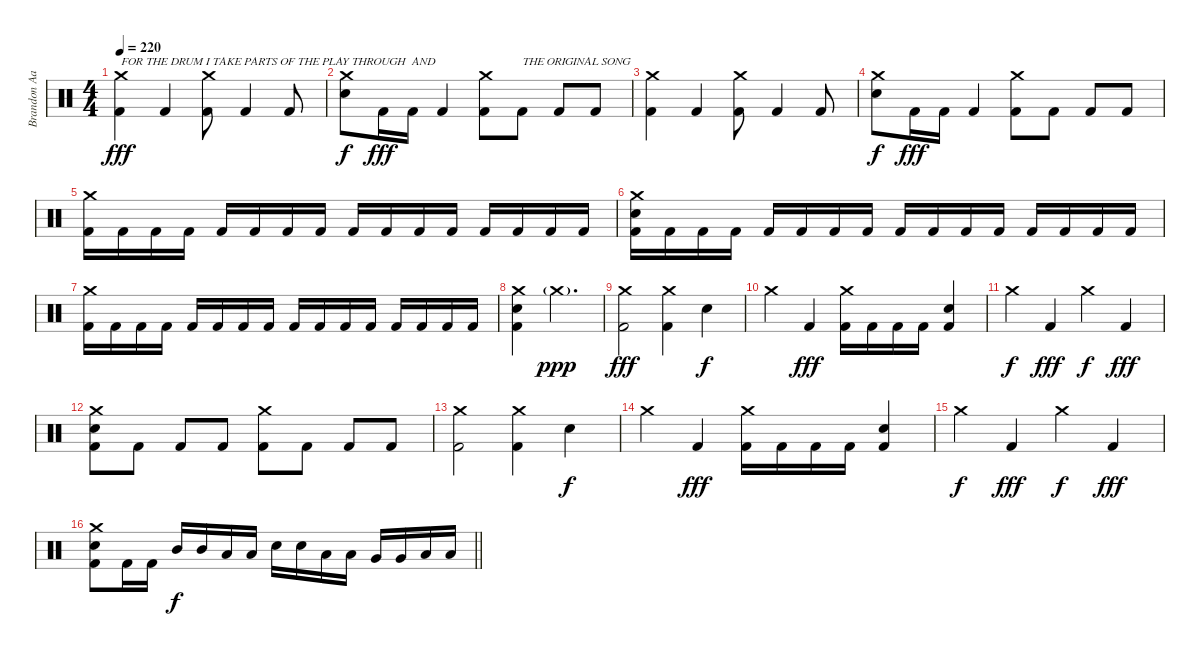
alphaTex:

\track ("Brandon Aaron Burkhalter" "Brandon Aa") {instrument percussion}
\staff {score}
\articulation defaults
\ts (4 4)
\tempo 220
\clef neutral
\ks c
("Crash medium (hit)" "Kick (hit) 2").4{txt "FOR THE DRUM I TAKE PARTS OF THE PLAY THROUGH  AND" dy fff} "Kick (hit) 2".4 ("Crash medium (hit)" "Kick (hit) 2").8 "Kick (hit) 2".4 "Kick (hit) 2".8 |
("Crash medium (hit)" "Snare (hit) 2").8{dy f} "Kick (hit) 2".16{dy fff} "Kick (hit) 2".16 "Kick (hit) 2".4 ("Crash medium (hit)" "Kick (hit) 2").8 "Kick (hit) 2".8{txt "THE ORIGINAL SONG"} "Kick (hit) 2".8 "Kick (hit) 2".8 |
("Crash medium (hit)" "Kick (hit) 2").4 "Kick (hit) 2".4 ("Crash medium (hit)" "Kick (hit) 2").8 "Kick (hit) 2".4 "Kick (hit) 2".8 |
("Crash medium (hit)" "Snare (hit) 2").8{dy f} "Kick (hit) 2".16{dy fff} "Kick (hit) 2".16 "Kick (hit) 2".4 ("Crash medium (hit)" "Kick (hit) 2").8 "Kick (hit) 2".8 "Kick (hit) 2".8 "Kick (hit) 2".8 |
("Crash medium (hit)" "Kick (hit) 2").16 "Kick (hit) 2".16 "Kick (hit) 2".16 "Kick (hit) 2".16 "Kick (hit) 2".16 "Kick (hit) 2".16 "Kick (hit) 2".16 "Kick (hit) 2".16 "Kick (hit) 2".16 "Kick (hit) 2".16 "Kick (hit) 2".16 "Kick (hit) 2".16 "Kick (hit) 2".16 "Kick (hit) 2".16 "Kick (hit) 2".16 "Kick (hit) 2".16 |
("Crash medium (hit)" "Snare (hit) 2" "Kick (hit) 2").16 "Kick (hit) 2".16 "Kick (hit) 2".16 "Kick (hit) 2".16 "Kick (hit) 2".16 "Kick (hit) 2".16 "Kick (hit) 2".16 "Kick (hit) 2".16 "Kick (hit) 2".16 "Kick (hit) 2".16 "Kick (hit) 2".16 "Kick (hit) 2".16 "Kick (hit) 2".16 "Kick (hit) 2".16 "Kick (hit) 2".16 "Kick (hit) 2".16 |
("Crash medium (hit)" "Kick (hit) 2").16 "Kick (hit) 2".16 "Kick (hit) 2".16 "Kick (hit) 2".16 "Kick (hit) 2".16 "Kick (hit) 2".16 "Kick (hit) 2".16 "Kick (hit) 2".16 "Kick (hit) 2".16 "Kick (hit) 2".16 "Kick (hit) 2".16 "Kick (hit) 2".16 "Kick (hit) 2".16 "Kick (hit) 2".16 "Kick (hit) 2".16 "Kick (hit) 2".16 |
("Crash medium (hit)" "Snare (hit) 2" "Kick (hit) 2").4 "Crash medium (hit)"{g}.2{d dy ppp} |
("Crash medium (hit)" "Kick (hit) 2").2{dy fff} ("Crash medium (hit)" "Kick (hit) 2").4 "Snare (hit) 2".4{dy f} |
"Crash medium (hit)".4 "Kick (hit) 2".4{dy fff} ("Crash medium (hit)" "Kick (hit) 2").16 "Kick (hit) 2".16 "Kick (hit) 2".16 "Kick (hit) 2".16 ("Snare (hit) 2" "Kick (hit) 2").4 |
"Crash medium (hit)".4{dy f} "Kick (hit) 2".4{dy fff} "Crash medium (hit)".4{dy f} "Kick (hit) 2".4{dy fff} |
("Crash medium (hit)" "Snare (hit) 2" "Kick (hit) 2").8 "Kick (hit) 2".8 "Kick (hit) 2".8 "Kick (hit) 2".8 ("Crash medium (hit)" "Kick (hit) 2").8 "Kick (hit) 2".8 "Kick (hit) 2".8 "Kick (hit) 2".8 |
("Crash medium (hit)" "Kick (hit) 2").2 ("Crash medium (hit)" "Kick (hit) 2").4 "Snare (hit) 2".4{dy f} |
"Crash medium (hit)".4 "Kick (hit) 2".4{dy fff} ("Crash medium (hit)" "Kick (hit) 2").16 "Kick (hit) 2".16 "Kick (hit) 2".16 "Kick (hit) 2".16 ("Snare (hit) 2" "Kick (hit) 2").4 |
"Crash medium (hit)".4{dy f} "Kick (hit) 2".4{dy fff} "Crash medium (hit)".4{dy f} "Kick (hit) 2".4{dy fff} |
\barLineRight lightlight
("Crash medium (hit)" "Snare (hit) 2" "Kick (hit) 2").8 "Kick (hit) 2".16 "Kick (hit) 2".16 "Mid Tom (hit)".16{dy f} "Mid Tom (hit)".16 "Low Tom (hit)".16 "Low Tom (hit)".16 "Snare (hit) 2".16 "Snare (hit) 2".16 "Low Tom (hit)".16 "Low Tom (hit)".16 "Very Low Tom (hit)".16 "Very Low Tom (hit)".16 "Low Floor Tom (hit)".16 "Low Floor Tom (hit)".16
